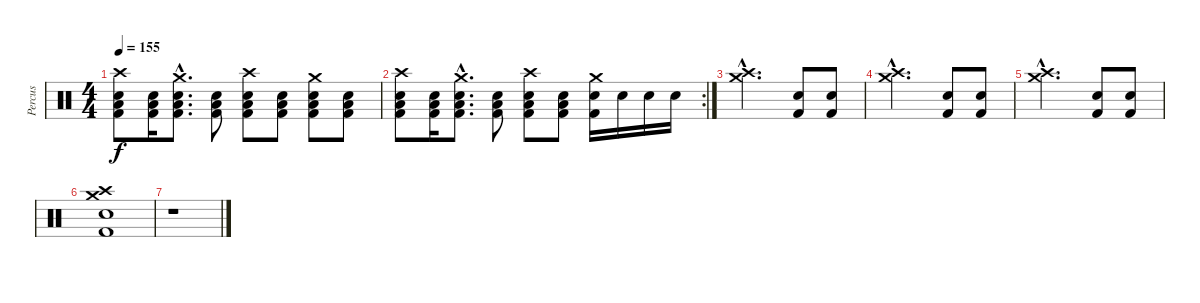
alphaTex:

\track ("Percus" "Percus") {instrument percussion}
\staff {score}
\articulation defaults
\ts (4 4)
\tempo 155
\clef neutral
\ks c
("Crash high (hit)" "Electric Snare (hit)" "Low Floor Tom (hit)" "Kick (hit) 2").8{dy f} ("Electric Snare (hit)" "Low Tom (hit)" "Kick (hit) 2").16 ("Crash medium (hit)"{hac} "Electric Snare (hit)"{hac} "Low Floor Tom (hit)"{hac} "Kick (hit) 2"{hac}).8{d} ("Electric Snare (hit)" "Low Tom (hit)" "Kick (hit) 2").8 ("Crash high (hit)" "Electric Snare (hit)" "Low Floor Tom (hit)" "Kick (hit) 2").8 ("Electric Snare (hit)" "Low Tom (hit)" "Kick (hit) 2").8 ("Crash medium (hit)" "Electric Snare (hit)" "Low Floor Tom (hit)" "Kick (hit) 2").8 ("Electric Snare (hit)" "Low Tom (hit)" "Kick (hit) 2").8 |
\rc 2
("Crash high (hit)" "Electric Snare (hit)" "Low Floor Tom (hit)" "Kick (hit) 2").8 ("Electric Snare (hit)" "Low Tom (hit)" "Kick (hit) 2").16 ("Crash medium (hit)"{hac} "Electric Snare (hit)"{hac} "Low Floor Tom (hit)"{hac} "Kick (hit) 2"{hac}).8{d} ("Electric Snare (hit)" "Low Tom (hit)" "Kick (hit) 2").8 ("Crash high (hit)" "Electric Snare (hit)" "Low Floor Tom (hit)" "Kick (hit) 2").8 ("Electric Snare (hit)" "Low Tom (hit)" "Kick (hit) 2").8 ("Crash medium (hit)" "Electric Snare (hit)" "Kick (hit) 2").16 "Electric Snare (hit)".16 "Electric Snare (hit)".16 "Electric Snare (hit)".16 |
("Crash high (hit)"{hac} "Crash medium (hit)"{hac}).2{d} ("Snare (hit) 2" "Kick (hit) 2").8 ("Snare (hit) 2" "Kick (hit) 2").8 |
("Crash high (hit)"{hac} "Crash medium (hit)"{hac}).2{d} ("Snare (hit) 2" "Kick (hit) 2").8 ("Snare (hit) 2" "Kick (hit) 2").8 |
("Crash high (hit)"{hac} "Crash medium (hit)"{hac}).2{d} ("Snare (hit) 2" "Kick (hit) 2").8 ("Snare (hit) 2" "Kick (hit) 2").8 |
("Crash high (hit)" "Crash medium (hit)" "Snare (hit) 2" "Kick (hit) 2").1 |
r.1
